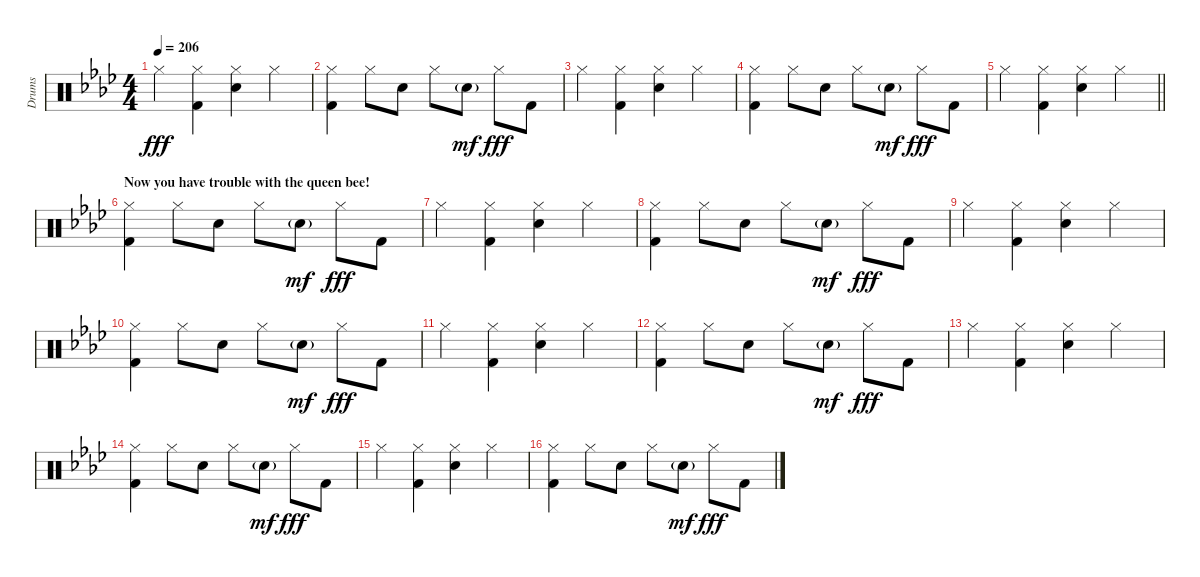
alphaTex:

\track ("Drums" "Drums") {instrument percussion}
\staff {score}
\articulation defaults
\ts (4 4)
\tempo 206
\clef neutral
\ks ab "Hi-Hat (closed)".4{dy fff}
("Hi-Hat (closed)" "Kick (hit) 2").4 ("Hi-Hat (closed)" "Electric Snare (hit)").4 "Hi-Hat (closed)".4 |
("Hi-Hat (closed)" "Kick (hit) 2").4 "Hi-Hat (closed)".8 "Electric Snare (hit)".8 "Hi-Hat (closed)".8 "Electric Snare (hit)"{g}.8{dy mf} "Hi-Hat (closed)".8{dy fff} "Kick (hit) 2".8 |
"Hi-Hat (closed)".4 ("Hi-Hat (closed)" "Kick (hit) 2").4 ("Hi-Hat (closed)" "Electric Snare (hit)").4 "Hi-Hat (closed)".4 |
("Hi-Hat (closed)" "Kick (hit) 2").4 "Hi-Hat (closed)".8 "Electric Snare (hit)".8 "Hi-Hat (closed)".8 "Electric Snare (hit)"{g}.8{dy mf} "Hi-Hat (closed)".8{dy fff} "Kick (hit) 2".8 |
\barLineRight lightlight "Hi-Hat (closed)".4
("Hi-Hat (closed)" "Kick (hit) 2").4 ("Hi-Hat (closed)" "Electric Snare (hit)").4 "Hi-Hat (closed)".4 |
\section ("" "Now you have trouble with the queen bee!")
("Hi-Hat (closed)" "Kick (hit) 2").4 "Hi-Hat (closed)".8 "Electric Snare (hit)".8 "Hi-Hat (closed)".8 "Electric Snare (hit)"{g}.8{dy mf} "Hi-Hat (closed)".8{dy fff} "Kick (hit) 2".8 |
"Hi-Hat (closed)".4 ("Hi-Hat (closed)" "Kick (hit) 2").4 ("Hi-Hat (closed)" "Electric Snare (hit)").4 "Hi-Hat (closed)".4 |
("Hi-Hat (closed)" "Kick (hit) 2").4 "Hi-Hat (closed)".8 "Electric Snare (hit)".8 "Hi-Hat (closed)".8 "Electric Snare (hit)"{g}.8{dy mf} "Hi-Hat (closed)".8{dy fff} "Kick (hit) 2".8 |
"Hi-Hat (closed)".4 ("Hi-Hat (closed)" "Kick (hit) 2").4 ("Hi-Hat (closed)" "Electric Snare (hit)").4 "Hi-Hat (closed)".4 |
("Hi-Hat (closed)" "Kick (hit) 2").4 "Hi-Hat (closed)".8 "Electric Snare (hit)".8 "Hi-Hat (closed)".8 "Electric Snare (hit)"{g}.8{dy mf} "Hi-Hat (closed)".8{dy fff} "Kick (hit) 2".8 |
"Hi-Hat (closed)".4 ("Hi-Hat (closed)" "Kick (hit) 2").4 ("Hi-Hat (closed)" "Electric Snare (hit)").4 "Hi-Hat (closed)".4 |
("Hi-Hat (closed)" "Kick (hit) 2").4 "Hi-Hat (closed)".8 "Electric Snare (hit)".8 "Hi-Hat (closed)".8 "Electric Snare (hit)"{g}.8{dy mf} "Hi-Hat (closed)".8{dy fff} "Kick (hit) 2".8 |
"Hi-Hat (closed)".4 ("Hi-Hat (closed)" "Kick (hit) 2").4 ("Hi-Hat (closed)" "Electric Snare (hit)").4 "Hi-Hat (closed)".4 |
("Hi-Hat (closed)" "Kick (hit) 2").4 "Hi-Hat (closed)".8 "Electric Snare (hit)".8 "Hi-Hat (closed)".8 "Electric Snare (hit)"{g}.8{dy mf} "Hi-Hat (closed)".8{dy fff} "Kick (hit) 2".8 |
"Hi-Hat (closed)".4 ("Hi-Hat (closed)" "Kick (hit) 2").4 ("Hi-Hat (closed)" "Electric Snare (hit)").4 "Hi-Hat (closed)".4 |
("Hi-Hat (closed)" "Kick (hit) 2").4 "Hi-Hat (closed)".8 "Electric Snare (hit)".8 "Hi-Hat (closed)".8 "Electric Snare (hit)"{g}.8{dy mf} "Hi-Hat (closed)".8{dy fff} "Kick (hit) 2".8
